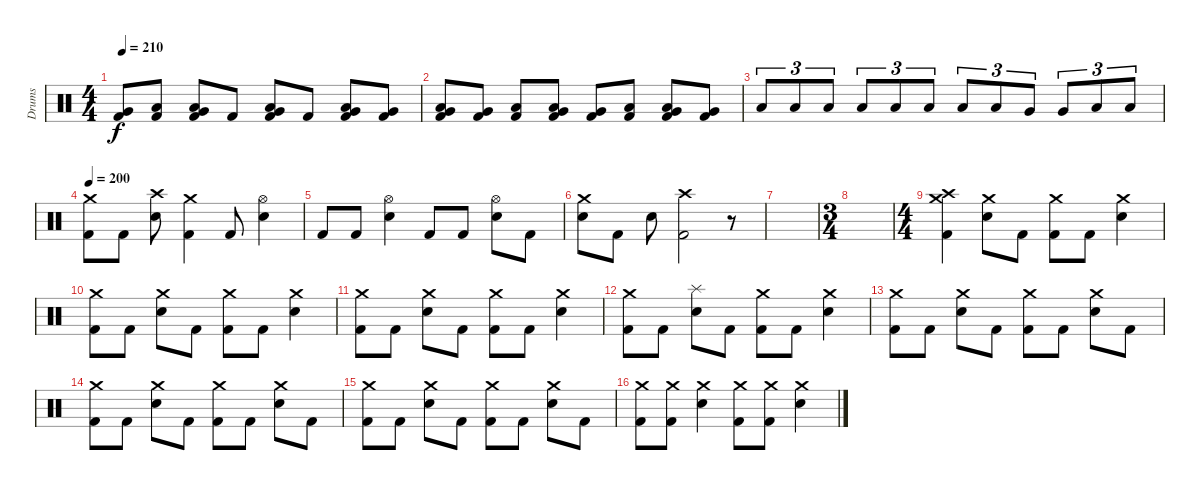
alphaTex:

\track ("Drums" "Drums") {instrument percussion}
\staff {score}
\articulation defaults
\ts (4 4)
\tempo 210
\clef neutral
\ks c
("Very Low Tom (hit)" "Kick (hit) 2").8{dy f} ("Low Tom (hit)" "Kick (hit) 2").8 ("Very Low Tom (hit)" "Low Tom (hit)" "Kick (hit) 2").8 "Kick (hit) 2".8 ("Very Low Tom (hit)" "Low Tom (hit)" "Kick (hit) 2").8 "Kick (hit) 2".8 ("Low Floor Tom (hit)" "Very Low Tom (hit)" "Kick (hit) 2").8 ("Very Low Tom (hit)" "Kick (hit) 2").8 |
("Very Low Tom (hit)" "Low Tom (hit)" "Kick (hit) 2").8 ("Very Low Tom (hit)" "Kick (hit) 2").8 ("Low Tom (hit)" "Kick (hit) 2").8 ("Very Low Tom (hit)" "Low Tom (hit)" "Kick (hit) 2").8 ("Very Low Tom (hit)" "Kick (hit) 2").8 ("Low Tom (hit)" "Kick (hit) 2").8 ("Very Low Tom (hit)" "Low Tom (hit)" "Kick (hit) 2").8 ("Very Low Tom (hit)" "Kick (hit) 2").8 |
"Low Floor Tom (hit)".8{tu (3 2)} "Low Floor Tom (hit)".8{tu (3 2)} "Low Tom (hit)".8{tu (3 2)} "Low Tom (hit)".8{tu (3 2)} "Low Floor Tom (hit)".8{tu (3 2)} "Low Floor Tom (hit)".8{tu (3 2)} "Low Tom (hit)".8{tu (3 2)} "Low Tom (hit)".8{tu (3 2)} "Very Low Tom (hit)".8{tu (3 2)} "Very Low Tom (hit)".8{tu (3 2)} "Low Floor Tom (hit)".8{tu (3 2)} "Low Floor Tom (hit)".8{tu (3 2)} |
\tempo 200
("Crash medium (hit)" "Kick (hit) 2").8 "Kick (hit) 2".8 ("Crash high (hit)" "Electric Snare (hit)").8 ("Crash medium (hit)" "Kick (hit) 2").4 "Kick (hit) 2".8 ("Hi-Hat (open)" "Electric Snare (hit)").4 |
"Kick (hit) 2".8 "Kick (hit) 2".8 ("Hi-Hat (open)" "Electric Snare (hit)").4 "Kick (hit) 2".8 "Kick (hit) 2".8 ("Hi-Hat (open)" "Electric Snare (hit)").8 "Kick (hit) 2".8 |
("Crash medium (hit)" "Electric Snare (hit)").8 "Kick (hit) 2".8 "Electric Snare (hit)".8 ("Crash high (hit)" "Kick (hit) 2").2 r.8 |
|
\ts (3 4)
|
\ts (4 4)
("Crash medium (hit)" "Crash high (hit)" "Kick (hit) 2").4 ("Crash medium (hit)" "Electric Snare (hit)").8 "Kick (hit) 2".8 ("Crash medium (hit)" "Kick (hit) 2").8 "Kick (hit) 2".8 ("Crash medium (hit)" "Electric Snare (hit)").4 |
("Crash medium (hit)" "Kick (hit) 2").8 "Kick (hit) 2".8 ("Crash medium (hit)" "Electric Snare (hit)").8 "Kick (hit) 2".8 ("Crash medium (hit)" "Kick (hit) 2").8 "Kick (hit) 2".8 ("Crash medium (hit)" "Electric Snare (hit)").4 |
("Crash medium (hit)" "Kick (hit) 2").8 "Kick (hit) 2".8 ("Crash medium (hit)" "Electric Snare (hit)").8 "Kick (hit) 2".8 ("Crash medium (hit)" "Kick (hit) 2").8 "Kick (hit) 2".8 ("Crash medium (hit)" "Electric Snare (hit)").4 |
("Crash medium (hit)" "Kick (hit) 2").8 "Kick (hit) 2".8 ("Splash (hit)" "Electric Snare (hit)").8 "Kick (hit) 2".8 ("Crash medium (hit)" "Kick (hit) 2").8 "Kick (hit) 2".8 ("Crash medium (hit)" "Electric Snare (hit)").4 |
("Crash medium (hit)" "Kick (hit) 2").8 "Kick (hit) 2".8 ("Crash medium (hit)" "Electric Snare (hit)").8 "Kick (hit) 2".8 ("Crash medium (hit)" "Kick (hit) 2").8 "Kick (hit) 2".8 ("Crash medium (hit)" "Electric Snare (hit)").8 "Kick (hit) 2".8 |
("Crash medium (hit)" "Kick (hit) 2").8 "Kick (hit) 2".8 ("Crash medium (hit)" "Electric Snare (hit)").8 "Kick (hit) 2".8 ("Crash medium (hit)" "Kick (hit) 2").8 "Kick (hit) 2".8 ("Crash medium (hit)" "Electric Snare (hit)").8 "Kick (hit) 2".8 |
("Crash medium (hit)" "Kick (hit) 2").8 "Kick (hit) 2".8 ("Crash medium (hit)" "Electric Snare (hit)").8 "Kick (hit) 2".8 ("Crash medium (hit)" "Kick (hit) 2").8 "Kick (hit) 2".8 ("Crash medium (hit)" "Electric Snare (hit)").8 "Kick (hit) 2".8 |
("Crash medium (hit)" "Kick (hit) 2").8 ("Crash medium (hit)" "Kick (hit) 2").8 ("Crash medium (hit)" "Electric Snare (hit)").4 ("Crash medium (hit)" "Kick (hit) 2").8 ("Crash medium (hit)" "Kick (hit) 2").8 ("Crash medium (hit)" "Electric Snare (hit)").4
